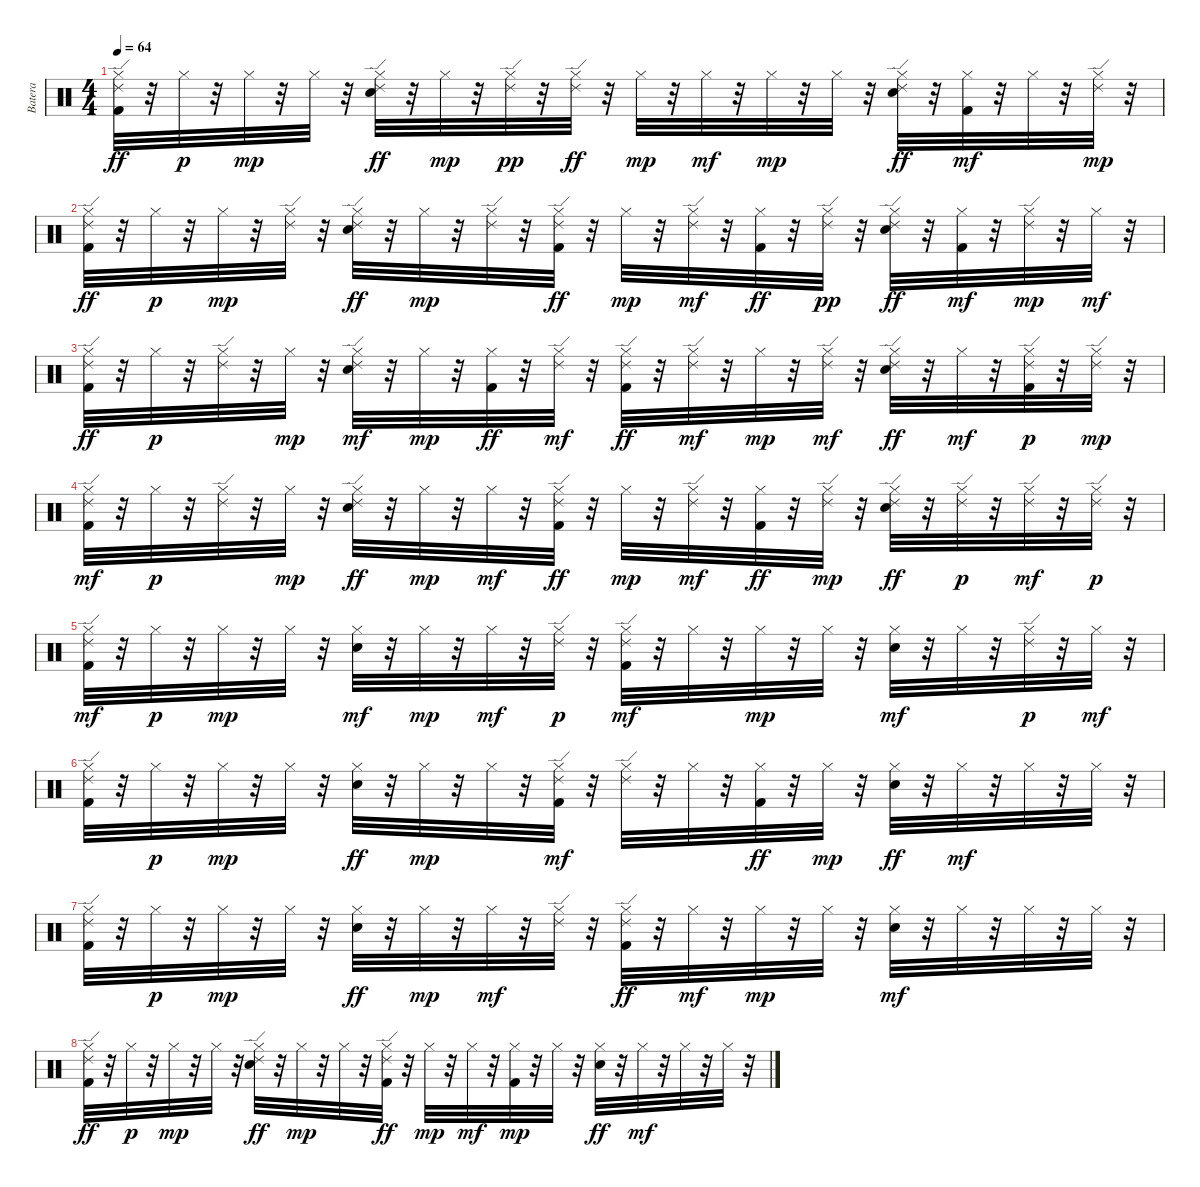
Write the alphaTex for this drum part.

\track ("Batera" "Batera") {instrument percussion}
\staff {score}
\articulation defaults
\ts (4 4)
\tempo 64
\clef neutral
\ks c
("Hi-Hat (closed)" "Kick (hit) 2" "Ride (edge) 2").32{dy ff} r.32 "Hi-Hat (closed)".32{dy p} r.32 "Hi-Hat (closed)".32{dy mp} r.32 "Hi-Hat (closed)".32 r.32 ("Hi-Hat (closed)" "Snare (hit) 2" "Ride (edge) 2").32{dy ff} r.32 "Hi-Hat (closed)".32{dy mp} r.32 ("Hi-Hat (closed)" "Ride (edge) 2").32{dy pp} r.32 ("Hi-Hat (closed)" "Ride (edge) 2").32{dy ff} r.32 "Hi-Hat (closed)".32{dy mp} r.32 "Hi-Hat (closed)".32{dy mf} r.32 "Hi-Hat (closed)".32{dy mp} r.32 "Hi-Hat (closed)".32 r.32 ("Hi-Hat (closed)" "Snare (hit) 2" "Ride (edge) 2").32{dy ff} r.32 ("Hi-Hat (closed)" "Kick (hit) 2").32{dy mf} r.32 "Hi-Hat (closed)".32 r.32 ("Hi-Hat (closed)" "Ride (edge) 2").32{dy mp} r.32 |
("Hi-Hat (closed)" "Kick (hit) 2" "Ride (edge) 2").32{dy ff} r.32 "Hi-Hat (closed)".32{dy p} r.32 "Hi-Hat (closed)".32{dy mp} r.32 ("Hi-Hat (closed)" "Ride (edge) 2").32 r.32 ("Hi-Hat (closed)" "Snare (hit) 2" "Ride (edge) 2").32{dy ff} r.32 "Hi-Hat (closed)".32{dy mp} r.32 ("Hi-Hat (closed)" "Ride (edge) 2").32 r.32 ("Hi-Hat (closed)" "Kick (hit) 2" "Ride (edge) 2").32{dy ff} r.32 "Hi-Hat (closed)".32{dy mp} r.32 ("Hi-Hat (closed)" "Ride (edge) 2").32{dy mf} r.32 ("Hi-Hat (closed)" "Kick (hit) 2").32{dy ff} r.32 ("Hi-Hat (closed)" "Ride (edge) 2").32{dy pp} r.32 ("Hi-Hat (closed)" "Snare (hit) 2" "Ride (edge) 2").32{dy ff} r.32 ("Hi-Hat (closed)" "Kick (hit) 2").32{dy mf} r.32 ("Hi-Hat (closed)" "Ride (edge) 2").32{dy mp} r.32 "Hi-Hat (closed)".32{dy mf} r.32 |
("Hi-Hat (closed)" "Kick (hit) 2" "Ride (edge) 2").32{dy ff} r.32 "Hi-Hat (closed)".32{dy p} r.32 ("Hi-Hat (closed)" "Ride (edge) 2").32 r.32 "Hi-Hat (closed)".32{dy mp} r.32 ("Hi-Hat (closed)" "Snare (hit) 2" "Ride (edge) 2").32{dy mf} r.32 "Hi-Hat (closed)".32{dy mp} r.32 ("Hi-Hat (closed)" "Kick (hit) 2").32{dy ff} r.32 ("Hi-Hat (closed)" "Ride (edge) 2").32{dy mf} r.32 ("Hi-Hat (closed)" "Ride (edge) 2" "Kick (hit) 2").32{dy ff} r.32 ("Hi-Hat (closed)" "Ride (edge) 2").32{dy mf} r.32 "Hi-Hat (closed)".32{dy mp} r.32 ("Hi-Hat (closed)" "Ride (edge) 2").32{dy mf} r.32 ("Hi-Hat (closed)" "Snare (hit) 2" "Ride (edge) 2").32{dy ff} r.32 "Hi-Hat (closed)".32{dy mf} r.32 ("Hi-Hat (closed)" "Kick (hit) 2" "Ride (edge) 2").32{dy p} r.32 ("Hi-Hat (closed)" "Ride (edge) 2").32{dy mp} r.32 |
("Hi-Hat (closed)" "Kick (hit) 2" "Ride (edge) 2").32{dy mf} r.32 "Hi-Hat (closed)".32{dy p} r.32 ("Hi-Hat (closed)" "Ride (edge) 2").32 r.32 "Hi-Hat (closed)".32{dy mp} r.32 ("Hi-Hat (closed)" "Snare (hit) 2" "Ride (edge) 2").32{dy ff} r.32 "Hi-Hat (closed)".32{dy mp} r.32 "Hi-Hat (closed)".32{dy mf} r.32 ("Hi-Hat (closed)" "Kick (hit) 2" "Ride (edge) 2").32{dy ff} r.32 "Hi-Hat (closed)".32{dy mp} r.32 ("Hi-Hat (closed)" "Ride (edge) 2").32{dy mf} r.32 ("Hi-Hat (closed)" "Kick (hit) 2").32{dy ff} r.32 ("Hi-Hat (closed)" "Ride (edge) 2").32{dy mp} r.32 ("Hi-Hat (closed)" "Snare (hit) 2" "Ride (edge) 2").32{dy ff} r.32 ("Hi-Hat (closed)" "Ride (edge) 2").32{dy p} r.32 ("Hi-Hat (closed)" "Ride (edge) 2").32{dy mf} r.32 ("Hi-Hat (closed)" "Ride (edge) 2").32{dy p} r.32 |
("Hi-Hat (closed)" "Kick (hit) 2" "Ride (edge) 2").32{dy mf} r.32 "Hi-Hat (closed)".32{dy p} r.32 "Hi-Hat (closed)".32{dy mp} r.32 "Hi-Hat (closed)".32 r.32 ("Hi-Hat (closed)" "Snare (hit) 2").32{dy mf} r.32 "Hi-Hat (closed)".32{dy mp} r.32 "Hi-Hat (closed)".32{dy mf} r.32 ("Hi-Hat (closed)" "Ride (edge) 2").32{dy p} r.32 ("Hi-Hat (closed)" "Kick (hit) 2" "Ride (edge) 2").32{dy mf} r.32 "Hi-Hat (closed)".32 r.32 "Hi-Hat (closed)".32{dy mp} r.32 "Hi-Hat (closed)".32 r.32 ("Hi-Hat (closed)" "Snare (hit) 2").32{dy mf} r.32 "Hi-Hat (closed)".32 r.32 ("Hi-Hat (closed)" "Ride (edge) 2").32{dy p} r.32 "Hi-Hat (closed)".32{dy mf} r.32 |
("Hi-Hat (closed)" "Kick (hit) 2" "Ride (edge) 2").32 r.32 "Hi-Hat (closed)".32{dy p} r.32 "Hi-Hat (closed)".32{dy mp} r.32 "Hi-Hat (closed)".32 r.32 ("Hi-Hat (closed)" "Snare (hit) 2").32{dy ff} r.32 "Hi-Hat (closed)".32{dy mp} r.32 "Hi-Hat (closed)".32 r.32 ("Hi-Hat (closed)" "Ride (edge) 2" "Kick (hit) 2").32{dy mf} r.32 ("Hi-Hat (closed)" "Ride (edge) 2").32 r.32 "Hi-Hat (closed)".32 r.32 ("Hi-Hat (closed)" "Kick (hit) 2").32{dy ff} r.32 "Hi-Hat (closed)".32{dy mp} r.32 ("Hi-Hat (closed)" "Snare (hit) 2").32{dy ff} r.32 "Hi-Hat (closed)".32{dy mf} r.32 "Hi-Hat (closed)".32 r.32 "Hi-Hat (closed)".32 r.32 |
("Hi-Hat (closed)" "Kick (hit) 2" "Ride (edge) 2").32 r.32 "Hi-Hat (closed)".32{dy p} r.32 "Hi-Hat (closed)".32{dy mp} r.32 "Hi-Hat (closed)".32 r.32 ("Hi-Hat (closed)" "Snare (hit) 2").32{dy ff} r.32 "Hi-Hat (closed)".32{dy mp} r.32 "Hi-Hat (closed)".32{dy mf} r.32 ("Hi-Hat (closed)" "Ride (edge) 2").32 r.32 ("Hi-Hat (closed)" "Kick (hit) 2" "Ride (edge) 2").32{dy ff} r.32 "Hi-Hat (closed)".32{dy mf} r.32 "Hi-Hat (closed)".32{dy mp} r.32 "Hi-Hat (closed)".32 r.32 ("Hi-Hat (closed)" "Snare (hit) 2").32{dy mf} r.32 "Hi-Hat (closed)".32 r.32 "Hi-Hat (closed)".32 r.32 "Hi-Hat (closed)".32 r.32 |
("Hi-Hat (closed)" "Kick (hit) 2" "Ride (edge) 2").32{dy ff} r.32 "Hi-Hat (closed)".32{dy p} r.32 "Hi-Hat (closed)".32{dy mp} r.32 "Hi-Hat (closed)".32 r.32 ("Hi-Hat (closed)" "Snare (hit) 2" "Ride (edge) 2").32{dy ff} r.32 "Hi-Hat (closed)".32{dy mp} r.32 "Hi-Hat (closed)".32 r.32 ("Hi-Hat (closed)" "Kick (hit) 2" "Ride (edge) 2").32{dy ff} r.32 "Hi-Hat (closed)".32{dy mp} r.32 "Hi-Hat (closed)".32{dy mf} r.32 ("Hi-Hat (closed)" "Kick (hit) 2").32{dy mp} r.32 "Hi-Hat (closed)".32 r.32 ("Hi-Hat (closed)" "Snare (hit) 2").32{dy ff} r.32 "Hi-Hat (closed)".32{dy mf} r.32 "Hi-Hat (closed)".32 r.32 "Hi-Hat (closed)".32 r.32
